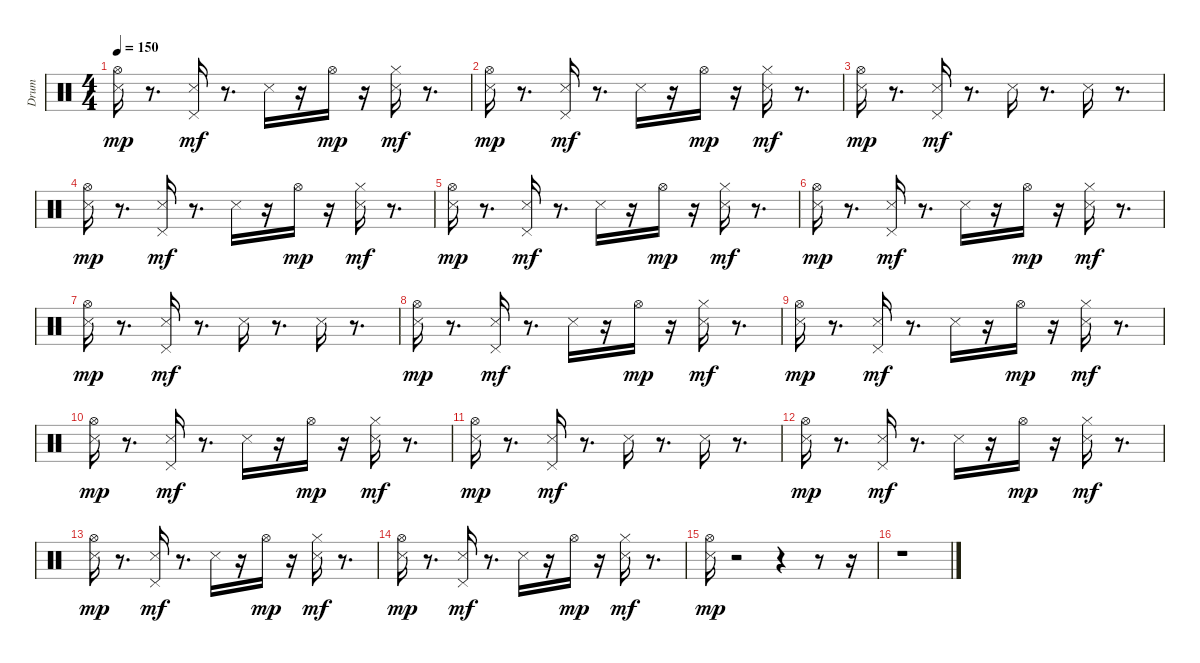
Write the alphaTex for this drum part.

\track ("Drum" "Drum") {instrument percussion}
\staff {score}
\articulation defaults
\ts (4 4)
\tempo 150
\clef neutral
\ks c
("Snare (side stick) 3" "Hi-Hat (open)").16{dy mp} r.8{d} ("Snare (side stick) 3" "Pedal Hi-Hat (hit)").16{dy mf} r.8{d} "Snare (side stick) 3".16 r.16 "Hi-Hat (open)".16{dy mp} r.16 ("Snare (side stick) 3" "Hi-Hat (closed)").16{dy mf} r.8{d} |
("Snare (side stick) 3" "Hi-Hat (open)").16{dy mp} r.8{d} ("Snare (side stick) 3" "Pedal Hi-Hat (hit)").16{dy mf} r.8{d} "Snare (side stick) 3".16 r.16 "Hi-Hat (open)".16{dy mp} r.16 ("Snare (side stick) 3" "Hi-Hat (closed)").16{dy mf} r.8{d} |
("Snare (side stick) 3" "Hi-Hat (open)").16{dy mp} r.8{d} ("Snare (side stick) 3" "Pedal Hi-Hat (hit)").16{dy mf} r.8{d} "Snare (side stick) 3".16 r.8{d} "Snare (side stick) 3".16 r.8{d} |
("Snare (side stick) 3" "Hi-Hat (open)").16{dy mp} r.8{d} ("Snare (side stick) 3" "Pedal Hi-Hat (hit)").16{dy mf} r.8{d} "Snare (side stick) 3".16 r.16 "Hi-Hat (open)".16{dy mp} r.16 ("Snare (side stick) 3" "Hi-Hat (closed)").16{dy mf} r.8{d} |
("Snare (side stick) 3" "Hi-Hat (open)").16{dy mp} r.8{d} ("Snare (side stick) 3" "Pedal Hi-Hat (hit)").16{dy mf} r.8{d} "Snare (side stick) 3".16 r.16 "Hi-Hat (open)".16{dy mp} r.16 ("Snare (side stick) 3" "Hi-Hat (closed)").16{dy mf} r.8{d} |
("Snare (side stick) 3" "Hi-Hat (open)").16{dy mp} r.8{d} ("Snare (side stick) 3" "Pedal Hi-Hat (hit)").16{dy mf} r.8{d} "Snare (side stick) 3".16 r.16 "Hi-Hat (open)".16{dy mp} r.16 ("Snare (side stick) 3" "Hi-Hat (closed)").16{dy mf} r.8{d} |
("Snare (side stick) 3" "Hi-Hat (open)").16{dy mp} r.8{d} ("Snare (side stick) 3" "Pedal Hi-Hat (hit)").16{dy mf} r.8{d} "Snare (side stick) 3".16 r.8{d} "Snare (side stick) 3".16 r.8{d} |
("Snare (side stick) 3" "Hi-Hat (open)").16{dy mp} r.8{d} ("Snare (side stick) 3" "Pedal Hi-Hat (hit)").16{dy mf} r.8{d} "Snare (side stick) 3".16 r.16 "Hi-Hat (open)".16{dy mp} r.16 ("Snare (side stick) 3" "Hi-Hat (closed)").16{dy mf} r.8{d} |
("Snare (side stick) 3" "Hi-Hat (open)").16{dy mp} r.8{d} ("Snare (side stick) 3" "Pedal Hi-Hat (hit)").16{dy mf} r.8{d} "Snare (side stick) 3".16 r.16 "Hi-Hat (open)".16{dy mp} r.16 ("Snare (side stick) 3" "Hi-Hat (closed)").16{dy mf} r.8{d} |
("Snare (side stick) 3" "Hi-Hat (open)").16{dy mp} r.8{d} ("Snare (side stick) 3" "Pedal Hi-Hat (hit)").16{dy mf} r.8{d} "Snare (side stick) 3".16 r.16 "Hi-Hat (open)".16{dy mp} r.16 ("Snare (side stick) 3" "Hi-Hat (closed)").16{dy mf} r.8{d} |
("Snare (side stick) 3" "Hi-Hat (open)").16{dy mp} r.8{d} ("Snare (side stick) 3" "Pedal Hi-Hat (hit)").16{dy mf} r.8{d} "Snare (side stick) 3".16 r.8{d} "Snare (side stick) 3".16 r.8{d} |
("Snare (side stick) 3" "Hi-Hat (open)").16{dy mp} r.8{d} ("Snare (side stick) 3" "Pedal Hi-Hat (hit)").16{dy mf} r.8{d} "Snare (side stick) 3".16 r.16 "Hi-Hat (open)".16{dy mp} r.16 ("Snare (side stick) 3" "Hi-Hat (closed)").16{dy mf} r.8{d} |
("Snare (side stick) 3" "Hi-Hat (open)").16{dy mp} r.8{d} ("Snare (side stick) 3" "Pedal Hi-Hat (hit)").16{dy mf} r.8{d} "Snare (side stick) 3".16 r.16 "Hi-Hat (open)".16{dy mp} r.16 ("Snare (side stick) 3" "Hi-Hat (closed)").16{dy mf} r.8{d} |
("Snare (side stick) 3" "Hi-Hat (open)").16{dy mp} r.8{d} ("Snare (side stick) 3" "Pedal Hi-Hat (hit)").16{dy mf} r.8{d} "Snare (side stick) 3".16 r.16 "Hi-Hat (open)".16{dy mp} r.16 ("Snare (side stick) 3" "Hi-Hat (closed)").16{dy mf} r.8{d} |
("Snare (side stick) 3" "Hi-Hat (open)").16{dy mp} r.2 r.4 r.8 r.16 |
r.1
